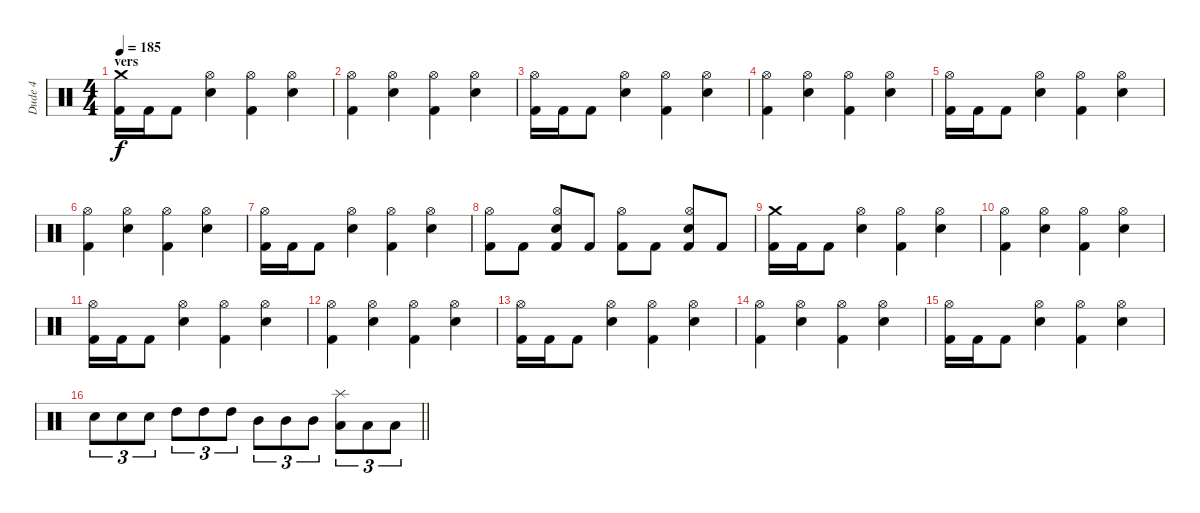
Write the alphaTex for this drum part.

\track ("Dude 4" "Dude 4") {instrument percussion}
\staff {score}
\articulation defaults
\ts (4 4)
\section ("" "vers")
\tempo 185
\clef neutral
\ks c
("Crash medium (hit)" "Kick (hit) 2").16{dy f} "Kick (hit) 2".16 "Kick (hit) 2".8 ("Hi-Hat (open)" "Electric Snare (hit)").4 ("Hi-Hat (open)" "Kick (hit) 2").4 ("Hi-Hat (open)" "Electric Snare (hit)").4 |
("Hi-Hat (open)" "Kick (hit) 2").4 ("Hi-Hat (open)" "Electric Snare (hit)").4 ("Hi-Hat (open)" "Kick (hit) 2").4 ("Hi-Hat (open)" "Electric Snare (hit)").4 |
("Hi-Hat (open)" "Kick (hit) 2").16 "Kick (hit) 2".16 "Kick (hit) 2".8 ("Hi-Hat (open)" "Electric Snare (hit)").4 ("Hi-Hat (open)" "Kick (hit) 2").4 ("Hi-Hat (open)" "Electric Snare (hit)").4 |
("Hi-Hat (open)" "Kick (hit) 2").4 ("Hi-Hat (open)" "Electric Snare (hit)").4 ("Hi-Hat (open)" "Kick (hit) 2").4 ("Hi-Hat (open)" "Electric Snare (hit)").4 |
("Hi-Hat (open)" "Kick (hit) 2").16 "Kick (hit) 2".16 "Kick (hit) 2".8 ("Hi-Hat (open)" "Electric Snare (hit)").4 ("Hi-Hat (open)" "Kick (hit) 2").4 ("Hi-Hat (open)" "Electric Snare (hit)").4 |
("Hi-Hat (open)" "Kick (hit) 2").4 ("Hi-Hat (open)" "Electric Snare (hit)").4 ("Hi-Hat (open)" "Kick (hit) 2").4 ("Hi-Hat (open)" "Electric Snare (hit)").4 |
("Hi-Hat (open)" "Kick (hit) 2").16 "Kick (hit) 2".16 "Kick (hit) 2".8 ("Hi-Hat (open)" "Electric Snare (hit)").4 ("Hi-Hat (open)" "Kick (hit) 2").4 ("Hi-Hat (open)" "Electric Snare (hit)").4 |
("Hi-Hat (open)" "Kick (hit) 2").8 "Kick (hit) 2".8 ("Hi-Hat (open)" "Electric Snare (hit)" "Kick (hit) 2").8 "Kick (hit) 2".8 ("Hi-Hat (open)" "Kick (hit) 2").8 "Kick (hit) 2".8 ("Hi-Hat (open)" "Electric Snare (hit)" "Kick (hit) 2").8 "Kick (hit) 2".8 |
("Crash medium (hit)" "Kick (hit) 2").16 "Kick (hit) 2".16 "Kick (hit) 2".8 ("Hi-Hat (open)" "Electric Snare (hit)").4 ("Hi-Hat (open)" "Kick (hit) 2").4 ("Hi-Hat (open)" "Electric Snare (hit)").4 |
("Hi-Hat (open)" "Kick (hit) 2").4 ("Hi-Hat (open)" "Electric Snare (hit)").4 ("Hi-Hat (open)" "Kick (hit) 2").4 ("Hi-Hat (open)" "Electric Snare (hit)").4 |
("Hi-Hat (open)" "Kick (hit) 2").16 "Kick (hit) 2".16 "Kick (hit) 2".8 ("Hi-Hat (open)" "Electric Snare (hit)").4 ("Hi-Hat (open)" "Kick (hit) 2").4 ("Hi-Hat (open)" "Electric Snare (hit)").4 |
("Hi-Hat (open)" "Kick (hit) 2").4 ("Hi-Hat (open)" "Electric Snare (hit)").4 ("Hi-Hat (open)" "Kick (hit) 2").4 ("Hi-Hat (open)" "Electric Snare (hit)").4 |
("Hi-Hat (open)" "Kick (hit) 2").16 "Kick (hit) 2".16 "Kick (hit) 2".8 ("Hi-Hat (open)" "Electric Snare (hit)").4 ("Hi-Hat (open)" "Kick (hit) 2").4 ("Hi-Hat (open)" "Electric Snare (hit)").4 |
("Hi-Hat (open)" "Kick (hit) 2").4 ("Hi-Hat (open)" "Electric Snare (hit)").4 ("Hi-Hat (open)" "Kick (hit) 2").4 ("Hi-Hat (open)" "Electric Snare (hit)").4 |
("Hi-Hat (open)" "Kick (hit) 2").16 "Kick (hit) 2".16 "Kick (hit) 2".8 ("Hi-Hat (open)" "Electric Snare (hit)").4 ("Hi-Hat (open)" "Kick (hit) 2").4 ("Hi-Hat (open)" "Electric Snare (hit)").4 |
\barLineRight lightlight "Electric Snare (hit)".8{tu (3 2)} "Electric Snare (hit)".8{tu (3 2)} "Electric Snare (hit)".8{tu (3 2)} "High Tom (hit)".8{tu (3 2)} "High Tom (hit)".8{tu (3 2)} "High Tom (hit)".8{tu (3 2)} "Mid Tom (hit)".8{tu (3 2)} "Mid Tom (hit)".8{tu (3 2)} "Mid Tom (hit)".8{tu (3 2)}
("Splash (hit)" "Low Tom (hit)").8{tu (3 2)} "Low Tom (hit)".8{tu (3 2)} "Low Tom (hit)".8{tu (3 2)}
